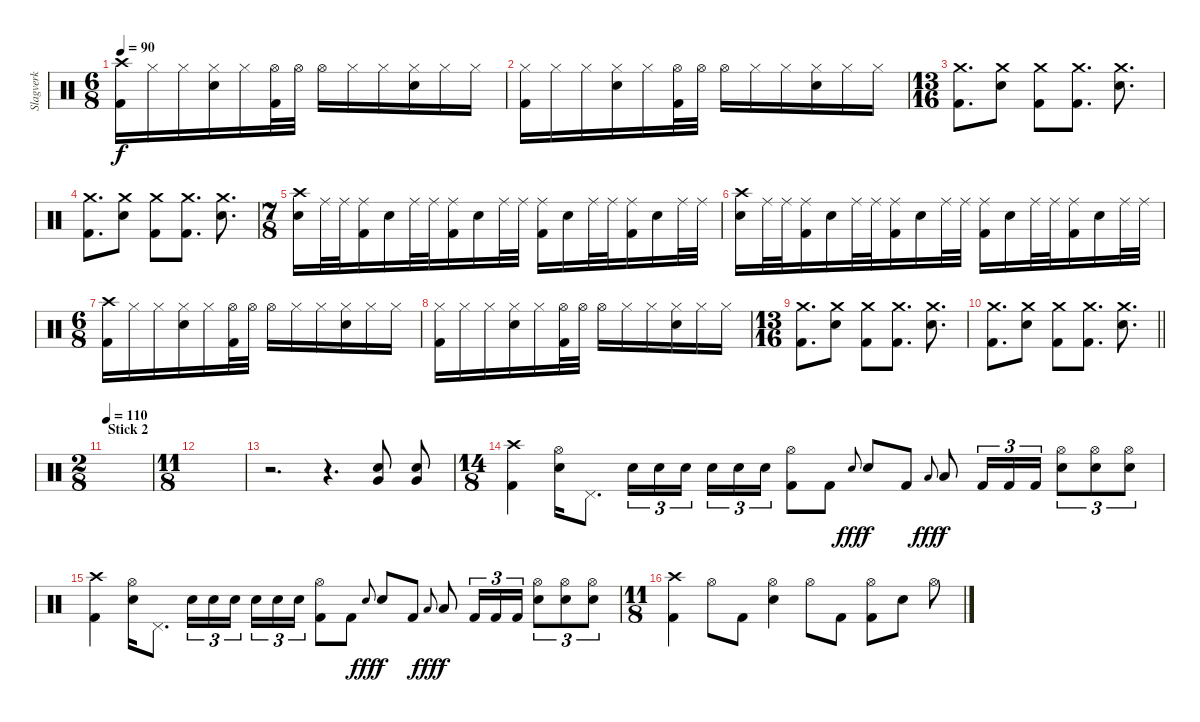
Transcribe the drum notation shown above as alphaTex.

\track ("Slagverk" "Slagverk") {instrument percussion}
\staff {score}
\articulation defaults
\ts (6 8)
\tempo 90
\clef neutral
\ks c
("Kick (hit) 2" "Crash high (hit)").16{dy f} "Hi-Hat (closed)".16 "Hi-Hat (closed)".16 ("Hi-Hat (closed)" "Snare (hit) 2").16 "Hi-Hat (closed)".16 ("Hi-Hat (open)" "Kick (hit) 2").32 "Hi-Hat (open)".32 "Hi-Hat (open)".16 "Hi-Hat (closed)".16 "Hi-Hat (closed)".16 ("Hi-Hat (closed)" "Snare (hit) 2").16 "Hi-Hat (closed)".16 "Hi-Hat (closed)".16 |
("Kick (hit) 2" "Hi-Hat (closed)").16 "Hi-Hat (closed)".16 "Hi-Hat (closed)".16 ("Hi-Hat (closed)" "Snare (hit) 2").16 "Hi-Hat (closed)".16 ("Hi-Hat (open)" "Kick (hit) 2").32 "Hi-Hat (open)".32 "Hi-Hat (open)".16 "Hi-Hat (closed)".16 "Hi-Hat (closed)".16 ("Hi-Hat (closed)" "Snare (hit) 2").16 "Hi-Hat (closed)".16 "Hi-Hat (closed)".16 |
\ts (13 16)
("Crash medium (hit)" "Kick (hit) 2").8{d} ("Snare (hit) 2" "Crash medium (hit)").8 ("Crash medium (hit)" "Kick (hit) 2").8 ("Crash medium (hit)" "Kick (hit) 2").8{d} ("Snare (hit) 2" "Crash medium (hit)").8{d} |
("Crash medium (hit)" "Kick (hit) 2").8{d} ("Snare (hit) 2" "Crash medium (hit)").8 ("Crash medium (hit)" "Kick (hit) 2").8 ("Crash medium (hit)" "Kick (hit) 2").8{d} ("Snare (hit) 2" "Crash medium (hit)").8{d} |
\ts (7 8)
("Crash high (hit)" "Snare (hit) 2").16 "Ride (middle)".32 "Ride (middle)".32 ("Ride (middle)" "Kick (hit) 2").16 "Snare (hit) 2".16 "Ride (middle)".32 "Ride (middle)".32 ("Ride (middle)" "Kick (hit) 2").16 "Snare (hit) 2".16 "Ride (middle)".32 "Ride (middle)".32 ("Ride (middle)" "Kick (hit) 2").16 "Snare (hit) 2".16 "Ride (middle)".32 "Ride (middle)".32 ("Ride (middle)" "Kick (hit) 2").16 "Snare (hit) 2".16 "Ride (middle)".32 "Ride (middle)".32 |
("Crash high (hit)" "Snare (hit) 2").16 "Ride (middle)".32 "Ride (middle)".32 ("Ride (middle)" "Kick (hit) 2").16 "Snare (hit) 2".16 "Ride (middle)".32 "Ride (middle)".32 ("Ride (middle)" "Kick (hit) 2").16 "Snare (hit) 2".16 "Ride (middle)".32 "Ride (middle)".32 ("Ride (middle)" "Kick (hit) 2").16 "Snare (hit) 2".16 "Ride (middle)".32 "Ride (middle)".32 ("Ride (middle)" "Kick (hit) 2").16 "Snare (hit) 2".16 "Ride (middle)".32 "Ride (middle)".32 |
\ts (6 8)
("Kick (hit) 2" "Crash high (hit)").16 "Hi-Hat (closed)".16 "Hi-Hat (closed)".16 ("Hi-Hat (closed)" "Snare (hit) 2").16 "Hi-Hat (closed)".16 ("Hi-Hat (open)" "Kick (hit) 2").32 "Hi-Hat (open)".32 "Hi-Hat (open)".16 "Hi-Hat (closed)".16 "Hi-Hat (closed)".16 ("Hi-Hat (closed)" "Snare (hit) 2").16 "Hi-Hat (closed)".16 "Hi-Hat (closed)".16 |
("Kick (hit) 2" "Hi-Hat (closed)").16 "Hi-Hat (closed)".16 "Hi-Hat (closed)".16 ("Hi-Hat (closed)" "Snare (hit) 2").16 "Hi-Hat (closed)".16 ("Hi-Hat (open)" "Kick (hit) 2").32 "Hi-Hat (open)".32 "Hi-Hat (open)".16 "Hi-Hat (closed)".16 "Hi-Hat (closed)".16 ("Hi-Hat (closed)" "Snare (hit) 2").16 "Hi-Hat (closed)".16 "Hi-Hat (closed)".16 |
\ts (13 16)
("Crash medium (hit)" "Kick (hit) 2").8{d} ("Snare (hit) 2" "Crash medium (hit)").8 ("Crash medium (hit)" "Kick (hit) 2").8 ("Crash medium (hit)" "Kick (hit) 2").8{d} ("Snare (hit) 2" "Crash medium (hit)").8{d} |
\barLineRight lightlight
("Crash medium (hit)" "Kick (hit) 2").8{d} ("Snare (hit) 2" "Crash medium (hit)").8 ("Crash medium (hit)" "Kick (hit) 2").8 ("Crash medium (hit)" "Kick (hit) 2").8{d} ("Snare (hit) 2" "Crash medium (hit)").8{d} |
\ts (2 8)
\section ("" "Stick 2")
\tempo 110
|
\ts (11 8)
|
r.2{d} r.4{d} ("Snare (hit) 2" "Very Low Tom (hit)").8 ("Snare (hit) 2" "Very Low Tom (hit)").8 |
\ts (14 8)
("Crash high (hit)" "Kick (hit) 2").4 ("Snare (hit) 2" "Hi-Hat (open)").16 "Pedal Hi-Hat (hit)".8{d} "Snare (hit) 2".16{tu (3 2)} "Snare (hit) 2".16{tu (3 2)} "Snare (hit) 2".16{tu (3 2)} "Snare (hit) 2".16{tu (3 2)} "Snare (hit) 2".16{tu (3 2)} "Snare (hit) 2".16{tu (3 2)} ("Hi-Hat (open)" "Kick (hit) 2").8 "Kick (hit) 2".8 "Snare (hit) 2".8{gr onbeat dy fff} "Snare (hit) 2".8{dy f} "Kick (hit) 2".8 "Low Tom (hit)".8{gr onbeat dy fff} "Low Tom (hit)".8{dy f} "Kick (hit) 2".16{tu (3 2)} "Kick (hit) 2".16{tu (3 2)} "Kick (hit) 2".16{tu (3 2)} ("Snare (hit) 2" "Hi-Hat (open)").8{tu (3 2)} ("Snare (hit) 2" "Hi-Hat (open)").8{tu (3 2)} ("Snare (hit) 2" "Hi-Hat (open)").8{tu (3 2)} |
("Crash high (hit)" "Kick (hit) 2").4 ("Snare (hit) 2" "Hi-Hat (open)").16 "Pedal Hi-Hat (hit)".8{d} "Snare (hit) 2".16{tu (3 2)} "Snare (hit) 2".16{tu (3 2)} "Snare (hit) 2".16{tu (3 2)} "Snare (hit) 2".16{tu (3 2)} "Snare (hit) 2".16{tu (3 2)} "Snare (hit) 2".16{tu (3 2)} ("Hi-Hat (open)" "Kick (hit) 2").8 "Kick (hit) 2".8 "Snare (hit) 2".8{gr onbeat dy fff} "Snare (hit) 2".8{dy f} "Kick (hit) 2".8 "Low Tom (hit)".8{gr onbeat dy fff} "Low Tom (hit)".8{dy f} "Kick (hit) 2".16{tu (3 2)} "Kick (hit) 2".16{tu (3 2)} "Kick (hit) 2".16{tu (3 2)} ("Snare (hit) 2" "Hi-Hat (open)").8{tu (3 2)} ("Snare (hit) 2" "Hi-Hat (open)").8{tu (3 2)} ("Snare (hit) 2" "Hi-Hat (open)").8{tu (3 2)} |
\ts (11 8)
("Kick (hit) 2" "Crash high (hit)").4 "Hi-Hat (open)".8 "Kick (hit) 2".8 ("Hi-Hat (open)" "Snare (hit) 2").4 "Hi-Hat (open)".8 "Kick (hit) 2".8 ("Kick (hit) 2" "Hi-Hat (open)").8 "Snare (hit) 2".8 "Hi-Hat (open)".8
